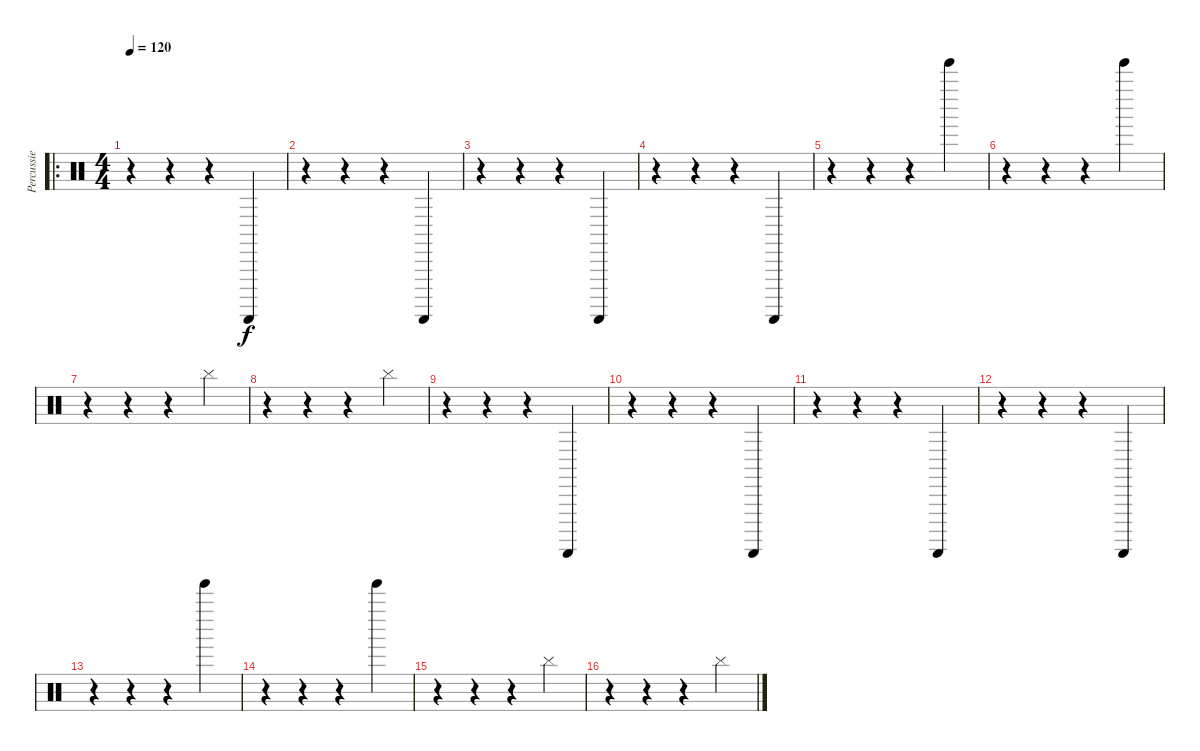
\track ("Percussie" "Percussie") {instrument percussion}
\staff {score}
\articulation defaults
\ro
\ts (4 4)
\tempo 120
\clef neutral
\ks c
r.4{dy f} r.4 r.4 "Guiro (scrap-return)".4 |
r.4 r.4 r.4 "Guiro (scrap-return)".4 |
r.4 r.4 r.4 "Guiro (scrap-return)".4 |
r.4 r.4 r.4 "Guiro (scrap-return)".4 |
r.4 r.4 r.4 "Tinkle Bell (hit)".4 |
r.4 r.4 r.4 "Tinkle Bell (hit)".4 |
r.4 r.4 r.4 "Cymbal (hit)".4 |
r.4 r.4 r.4 "Cymbal (hit)".4 |
r.4 r.4 r.4 "Guiro (scrap-return)".4 |
r.4 r.4 r.4 "Guiro (scrap-return)".4 |
r.4 r.4 r.4 "Guiro (scrap-return)".4 |
r.4 r.4 r.4 "Guiro (scrap-return)".4 |
r.4 r.4 r.4 "Tinkle Bell (hit)".4 |
r.4 r.4 r.4 "Tinkle Bell (hit)".4 |
r.4 r.4 r.4 "Cymbal (hit)".4 |
r.4 r.4 r.4 "Cymbal (hit)".4
